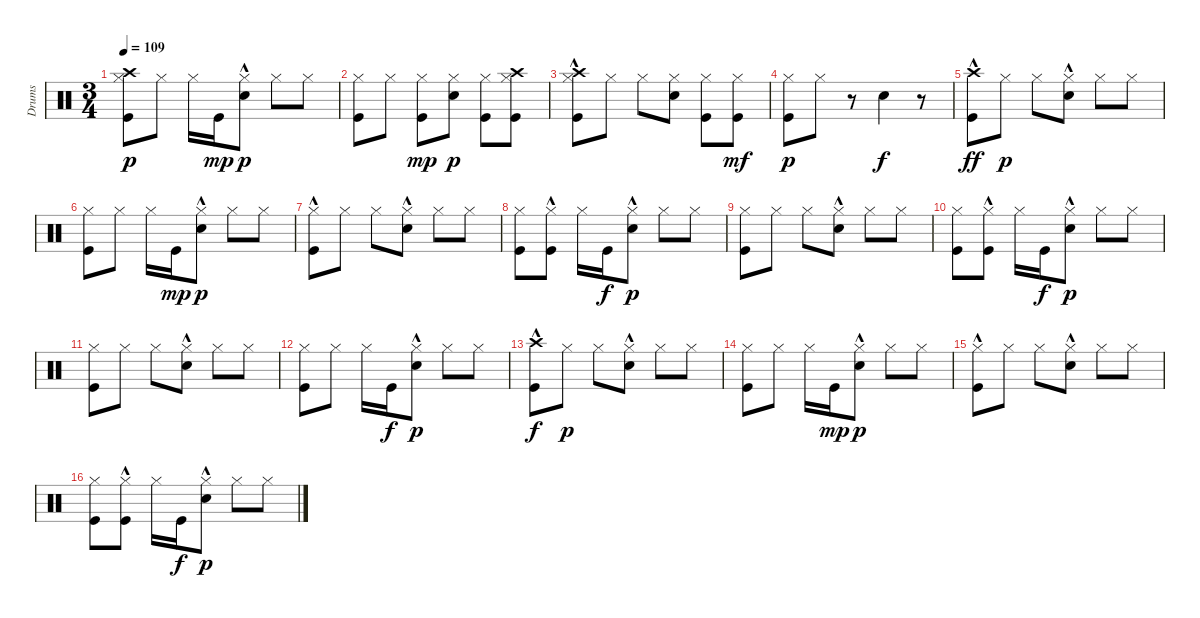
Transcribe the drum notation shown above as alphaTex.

\track ("Drums" "Drums") {instrument percussion}
\staff {score}
\articulation defaults
\ts (3 4)
\tempo 109
\clef neutral
\ks c
("Crash high (hit)" "Hi-Hat (closed)" "Kick (hit)").8{dy p} "Hi-Hat (closed)".8 "Hi-Hat (closed)".16 "Kick (hit)".16{dy mp} ("Hi-Hat (closed)" "Electric Snare (hit)"{hac}).8{dy p} "Hi-Hat (closed)".8 "Hi-Hat (closed)".8 |
("Hi-Hat (closed)" "Kick (hit)").8 "Hi-Hat (closed)".8 ("Hi-Hat (closed)" "Kick (hit)").8{dy mp} ("Hi-Hat (closed)" "Electric Snare (hit)").8{dy p} ("Hi-Hat (closed)" "Kick (hit)").8 ("Crash high (hit)" "Hi-Hat (closed)" "Kick (hit)").8 |
("Crash high (hit)" "Hi-Hat (closed)" "Kick (hit)"{hac}).8 "Hi-Hat (closed)".8 "Hi-Hat (closed)".8 ("Hi-Hat (closed)" "Electric Snare (hit)").8 ("Hi-Hat (closed)" "Kick (hit)").8 ("Hi-Hat (closed)" "Kick (hit)").8{dy mf} |
("Hi-Hat (closed)" "Kick (hit)").8{dy p} "Hi-Hat (closed)".8 r.8 "Electric Snare (hit)".4{dy f} r.8 |
("Crash high (hit)"{hac} "Kick (hit)"{hac}).8{dy ff} "Hi-Hat (closed)".8{dy p} "Hi-Hat (closed)".8 ("Electric Snare (hit)"{hac} "Hi-Hat (closed)").8 "Hi-Hat (closed)".8 "Hi-Hat (closed)".8 |
("Kick (hit)" "Hi-Hat (closed)").8 "Hi-Hat (closed)".8 "Hi-Hat (closed)".16 "Kick (hit)".16{dy mp} ("Electric Snare (hit)"{hac} "Hi-Hat (closed)").8{dy p} "Hi-Hat (closed)".8 "Hi-Hat (closed)".8 |
("Kick (hit)"{hac} "Hi-Hat (closed)").8 "Hi-Hat (closed)".8 "Hi-Hat (closed)".8 ("Electric Snare (hit)"{hac} "Hi-Hat (closed)").8 "Hi-Hat (closed)".8 "Hi-Hat (closed)".8 |
("Kick (hit)" "Hi-Hat (closed)").8 ("Kick (hit)"{hac} "Hi-Hat (closed)").8 "Hi-Hat (closed)".16 "Kick (hit)".16{dy f} ("Electric Snare (hit)"{hac} "Hi-Hat (closed)").8{dy p} "Hi-Hat (closed)".8 "Hi-Hat (closed)".8 |
("Kick (hit)" "Hi-Hat (closed)").8 "Hi-Hat (closed)".8 "Hi-Hat (closed)".8 ("Electric Snare (hit)"{hac} "Hi-Hat (closed)").8 "Hi-Hat (closed)".8 "Hi-Hat (closed)".8 |
("Hi-Hat (closed)" "Kick (hit)").8 ("Hi-Hat (closed)" "Kick (hit)"{hac}).8 "Hi-Hat (closed)".16 "Kick (hit)".16{dy f} ("Hi-Hat (closed)" "Electric Snare (hit)"{hac}).8{dy p} "Hi-Hat (closed)".8 "Hi-Hat (closed)".8 |
("Hi-Hat (closed)" "Kick (hit)").8 "Hi-Hat (closed)".8 "Hi-Hat (closed)".8 ("Hi-Hat (closed)" "Electric Snare (hit)"{hac}).8 "Hi-Hat (closed)".8 "Hi-Hat (closed)".8 |
("Hi-Hat (closed)" "Kick (hit)").8 "Hi-Hat (closed)".8 "Hi-Hat (closed)".16 "Kick (hit)".16{dy f} ("Hi-Hat (closed)" "Electric Snare (hit)"{hac}).8{dy p} "Hi-Hat (closed)".8 "Hi-Hat (closed)".8 |
("Crash high (hit)"{hac} "Kick (hit)"{hac}).8{dy f} "Hi-Hat (closed)".8{dy p} "Hi-Hat (closed)".8 ("Electric Snare (hit)"{hac} "Hi-Hat (closed)").8 "Hi-Hat (closed)".8 "Hi-Hat (closed)".8 |
("Kick (hit)" "Hi-Hat (closed)").8 "Hi-Hat (closed)".8 "Hi-Hat (closed)".16 "Kick (hit)".16{dy mp} ("Electric Snare (hit)"{hac} "Hi-Hat (closed)").8{dy p} "Hi-Hat (closed)".8 "Hi-Hat (closed)".8 |
("Kick (hit)"{hac} "Hi-Hat (closed)").8 "Hi-Hat (closed)".8 "Hi-Hat (closed)".8 ("Electric Snare (hit)"{hac} "Hi-Hat (closed)").8 "Hi-Hat (closed)".8 "Hi-Hat (closed)".8 |
("Kick (hit)" "Hi-Hat (closed)").8 ("Kick (hit)"{hac} "Hi-Hat (closed)").8 "Hi-Hat (closed)".16 "Kick (hit)".16{dy f} ("Electric Snare (hit)"{hac} "Hi-Hat (closed)").8{dy p} "Hi-Hat (closed)".8 "Hi-Hat (closed)".8
